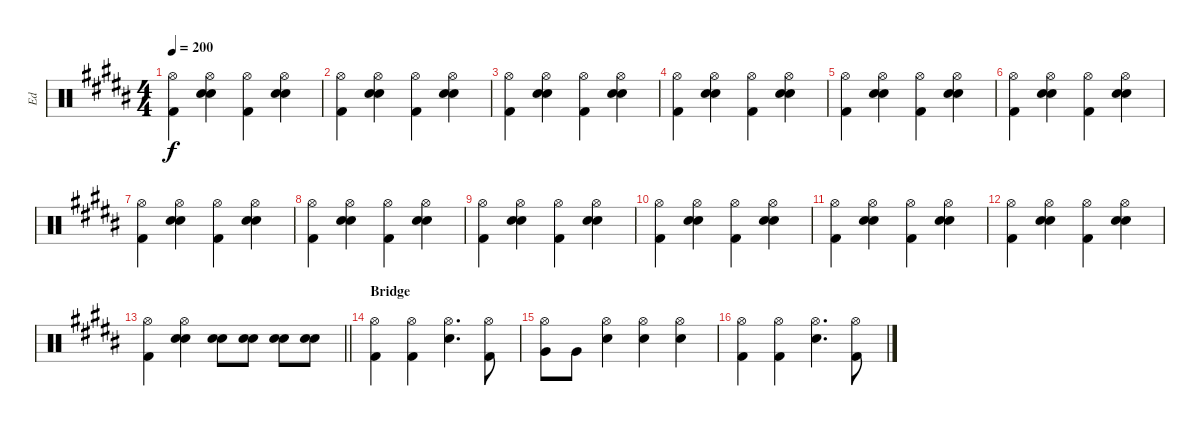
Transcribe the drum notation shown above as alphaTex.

\track ("Ed" "Ed") {instrument percussion bank 127}
\staff {score}
\articulation defaults
\ts (4 4)
\tempo 200
\clef neutral
\ks g#minor
("Hi-Hat (open)" "Kick (hit) 2").4{dy f} ("Hi-Hat (open)" "Electric Snare (hit)" "Electric Snare (hit)").4 ("Hi-Hat (open)" "Kick (hit) 2").4 ("Hi-Hat (open)" "Electric Snare (hit)" "Electric Snare (hit)").4 |
("Hi-Hat (open)" "Kick (hit) 2").4 ("Hi-Hat (open)" "Electric Snare (hit)" "Electric Snare (hit)").4 ("Hi-Hat (open)" "Kick (hit) 2").4 ("Hi-Hat (open)" "Electric Snare (hit)" "Electric Snare (hit)").4 |
("Hi-Hat (open)" "Kick (hit) 2").4 ("Hi-Hat (open)" "Electric Snare (hit)" "Electric Snare (hit)").4 ("Hi-Hat (open)" "Kick (hit) 2").4 ("Hi-Hat (open)" "Electric Snare (hit)" "Electric Snare (hit)").4 |
("Hi-Hat (open)" "Kick (hit) 2").4 ("Hi-Hat (open)" "Electric Snare (hit)" "Electric Snare (hit)").4 ("Hi-Hat (open)" "Kick (hit) 2").4 ("Hi-Hat (open)" "Electric Snare (hit)" "Electric Snare (hit)").4 |
("Hi-Hat (open)" "Kick (hit) 2").4 ("Hi-Hat (open)" "Electric Snare (hit)" "Electric Snare (hit)").4 ("Hi-Hat (open)" "Kick (hit) 2").4 ("Hi-Hat (open)" "Electric Snare (hit)" "Electric Snare (hit)").4 |
("Hi-Hat (open)" "Kick (hit) 2").4 ("Hi-Hat (open)" "Electric Snare (hit)" "Electric Snare (hit)").4 ("Hi-Hat (open)" "Kick (hit) 2").4 ("Hi-Hat (open)" "Electric Snare (hit)" "Electric Snare (hit)").4 |
("Hi-Hat (open)" "Kick (hit) 2").4 ("Hi-Hat (open)" "Electric Snare (hit)" "Electric Snare (hit)").4 ("Hi-Hat (open)" "Kick (hit) 2").4 ("Hi-Hat (open)" "Electric Snare (hit)" "Electric Snare (hit)").4 |
("Hi-Hat (open)" "Kick (hit) 2").4 ("Hi-Hat (open)" "Electric Snare (hit)" "Electric Snare (hit)").4 ("Hi-Hat (open)" "Kick (hit) 2").4 ("Hi-Hat (open)" "Electric Snare (hit)" "Electric Snare (hit)").4 |
("Hi-Hat (open)" "Kick (hit) 2").4 ("Hi-Hat (open)" "Electric Snare (hit)" "Electric Snare (hit)").4 ("Hi-Hat (open)" "Kick (hit) 2").4 ("Hi-Hat (open)" "Electric Snare (hit)" "Electric Snare (hit)").4 |
("Hi-Hat (open)" "Kick (hit) 2").4 ("Hi-Hat (open)" "Electric Snare (hit)" "Electric Snare (hit)").4 ("Hi-Hat (open)" "Kick (hit) 2").4 ("Hi-Hat (open)" "Electric Snare (hit)" "Electric Snare (hit)").4 |
("Hi-Hat (open)" "Kick (hit) 2").4 ("Hi-Hat (open)" "Electric Snare (hit)" "Electric Snare (hit)").4 ("Hi-Hat (open)" "Kick (hit) 2").4 ("Hi-Hat (open)" "Electric Snare (hit)" "Electric Snare (hit)").4 |
("Hi-Hat (open)" "Kick (hit) 2").4 ("Hi-Hat (open)" "Electric Snare (hit)" "Electric Snare (hit)").4 ("Hi-Hat (open)" "Kick (hit) 2").4 ("Hi-Hat (open)" "Electric Snare (hit)" "Electric Snare (hit)").4 |
\barLineRight lightlight
("Hi-Hat (open)" "Kick (hit) 2").4 ("Hi-Hat (open)" "Electric Snare (hit)" "Electric Snare (hit)").4 ("Electric Snare (hit)" "Electric Snare (hit)").8 ("Electric Snare (hit)" "Electric Snare (hit)").8 ("Electric Snare (hit)" "Electric Snare (hit)").8 ("Electric Snare (hit)" "Electric Snare (hit)").8 |
\section ("" "Bridge")
("Hi-Hat (open)" "Kick (hit) 2").4 ("Hi-Hat (open)" "Kick (hit) 2").4 ("Hi-Hat (open)" "Snare (hit) 2").4{d} ("Hi-Hat (open)" "Kick (hit) 2").8 |
("Hi-Hat (open)" "Very Low Tom (hit)").8 "Very Low Tom (hit)".8 ("Hi-Hat (open)" "Snare (hit) 2").4 ("Hi-Hat (open)" "Snare (hit) 2").4 ("Hi-Hat (open)" "Snare (hit) 2").4 |
("Hi-Hat (open)" "Kick (hit) 2").4 ("Hi-Hat (open)" "Kick (hit) 2").4 ("Hi-Hat (open)" "Snare (hit) 2").4{d} ("Hi-Hat (open)" "Kick (hit) 2").8
